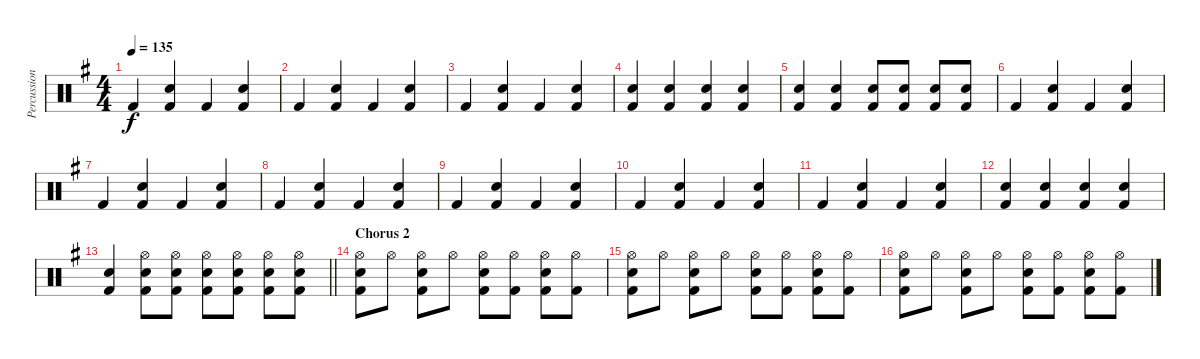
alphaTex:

\track ("Percussion" "Percussion") {instrument percussion}
\staff {score}
\articulation defaults
\ts (4 4)
\tempo 135
\clef neutral
\ks g "Kick (hit) 2".4{dy f}
("Snare (hit) 2" "Kick (hit) 2").4 "Kick (hit) 2".4 ("Snare (hit) 2" "Kick (hit) 2").4 |
"Kick (hit) 2".4 ("Snare (hit) 2" "Kick (hit) 2").4 "Kick (hit) 2".4 ("Snare (hit) 2" "Kick (hit) 2").4 |
"Kick (hit) 2".4 ("Snare (hit) 2" "Kick (hit) 2").4 "Kick (hit) 2".4 ("Snare (hit) 2" "Kick (hit) 2").4 |
("Snare (hit) 2" "Kick (hit) 2").4 ("Snare (hit) 2" "Kick (hit) 2").4 ("Snare (hit) 2" "Kick (hit) 2").4 ("Snare (hit) 2" "Kick (hit) 2").4 |
("Snare (hit) 2" "Kick (hit) 2").4 ("Snare (hit) 2" "Kick (hit) 2").4 ("Snare (hit) 2" "Kick (hit) 2").8 ("Snare (hit) 2" "Kick (hit) 2").8 ("Snare (hit) 2" "Kick (hit) 2").8 ("Snare (hit) 2" "Kick (hit) 2").8 |
"Kick (hit) 2".4 ("Snare (hit) 2" "Kick (hit) 2").4 "Kick (hit) 2".4 ("Snare (hit) 2" "Kick (hit) 2").4 |
"Kick (hit) 2".4 ("Snare (hit) 2" "Kick (hit) 2").4 "Kick (hit) 2".4 ("Snare (hit) 2" "Kick (hit) 2").4 |
"Kick (hit) 2".4 ("Snare (hit) 2" "Kick (hit) 2").4 "Kick (hit) 2".4 ("Snare (hit) 2" "Kick (hit) 2").4 |
"Kick (hit) 2".4 ("Snare (hit) 2" "Kick (hit) 2").4 "Kick (hit) 2".4 ("Snare (hit) 2" "Kick (hit) 2").4 |
"Kick (hit) 2".4 ("Snare (hit) 2" "Kick (hit) 2").4 "Kick (hit) 2".4 ("Snare (hit) 2" "Kick (hit) 2").4 |
"Kick (hit) 2".4 ("Snare (hit) 2" "Kick (hit) 2").4 "Kick (hit) 2".4 ("Snare (hit) 2" "Kick (hit) 2").4 |
("Snare (hit) 2" "Kick (hit) 2").4 ("Snare (hit) 2" "Kick (hit) 2").4 ("Snare (hit) 2" "Kick (hit) 2").4 ("Snare (hit) 2" "Kick (hit) 2").4 |
\barLineRight lightlight
("Snare (hit) 2" "Kick (hit) 2").4 ("Hi-Hat (open)" "Snare (hit) 2" "Kick (hit) 2").8 ("Hi-Hat (open)" "Snare (hit) 2" "Kick (hit) 2").8 ("Hi-Hat (open)" "Snare (hit) 2" "Kick (hit) 2").8 ("Hi-Hat (open)" "Snare (hit) 2" "Kick (hit) 2").8 ("Hi-Hat (open)" "Snare (hit) 2" "Kick (hit) 2").8 ("Hi-Hat (open)" "Snare (hit) 2" "Kick (hit) 2").8 |
\section ("" "Chorus 2")
("Hi-Hat (open)" "Snare (hit) 2" "Kick (hit) 2").8 "Hi-Hat (open)".8 ("Hi-Hat (open)" "Snare (hit) 2" "Kick (hit) 2").8 "Hi-Hat (open)".8 ("Hi-Hat (open)" "Snare (hit) 2" "Kick (hit) 2").8 ("Hi-Hat (open)" "Kick (hit) 2").8 ("Hi-Hat (open)" "Snare (hit) 2" "Kick (hit) 2").8 ("Hi-Hat (open)" "Kick (hit) 2").8 |
("Hi-Hat (open)" "Snare (hit) 2" "Kick (hit) 2").8 "Hi-Hat (open)".8 ("Hi-Hat (open)" "Snare (hit) 2" "Kick (hit) 2").8 "Hi-Hat (open)".8 ("Hi-Hat (open)" "Snare (hit) 2" "Kick (hit) 2").8 ("Hi-Hat (open)" "Kick (hit) 2").8 ("Hi-Hat (open)" "Snare (hit) 2" "Kick (hit) 2").8 ("Hi-Hat (open)" "Kick (hit) 2").8 |
("Hi-Hat (open)" "Snare (hit) 2" "Kick (hit) 2").8 "Hi-Hat (open)".8 ("Hi-Hat (open)" "Snare (hit) 2" "Kick (hit) 2").8 "Hi-Hat (open)".8 ("Hi-Hat (open)" "Snare (hit) 2" "Kick (hit) 2").8 ("Hi-Hat (open)" "Kick (hit) 2").8 ("Hi-Hat (open)" "Snare (hit) 2" "Kick (hit) 2").8 ("Hi-Hat (open)" "Kick (hit) 2").8
